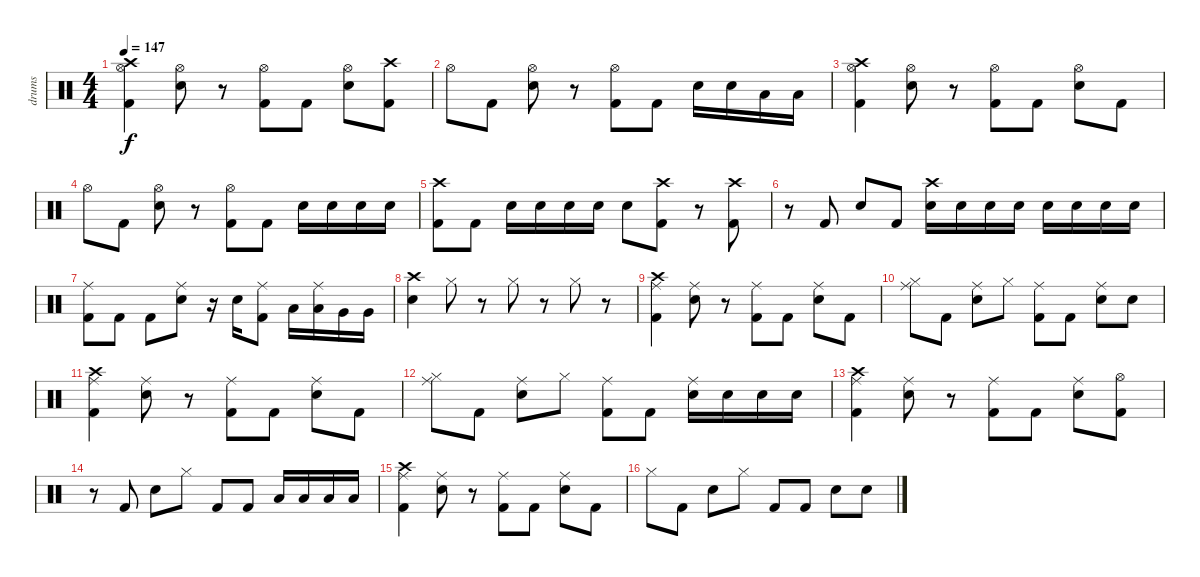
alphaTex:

\track ("drums" "drums") {instrument percussion}
\staff {score}
\articulation defaults
\ts (4 4)
\tempo 147
\clef neutral
\ks c
("Crash high (hit)" "Hi-Hat (open)" "Kick (hit) 2").4{dy f} ("Hi-Hat (open)" "Electric Snare (hit)").8 r.8 ("Hi-Hat (open)" "Kick (hit) 2").8 "Kick (hit) 2".8 ("Hi-Hat (open)" "Electric Snare (hit)").8 ("Crash high (hit)" "Kick (hit) 2").8 |
"Hi-Hat (open)".8 "Kick (hit) 2".8 ("Hi-Hat (open)" "Electric Snare (hit)").8 r.8 ("Hi-Hat (open)" "Kick (hit) 2").8 "Kick (hit) 2".8 "Electric Snare (hit)".16 "Electric Snare (hit)".16 "Low Tom (hit)".16 "Low Tom (hit)".16 |
("Crash high (hit)" "Hi-Hat (open)" "Kick (hit) 2").4 ("Hi-Hat (open)" "Electric Snare (hit)").8 r.8 ("Hi-Hat (open)" "Kick (hit) 2").8 "Kick (hit) 2".8 ("Hi-Hat (open)" "Electric Snare (hit)").8 "Kick (hit) 2".8 |
"Hi-Hat (open)".8 "Kick (hit) 2".8 ("Hi-Hat (open)" "Electric Snare (hit)").8 r.8 ("Hi-Hat (open)" "Kick (hit) 2").8 "Kick (hit) 2".8 "Electric Snare (hit)".16 "Electric Snare (hit)".16 "Electric Snare (hit)".16 "Electric Snare (hit)".16 |
("Crash high (hit)" "Kick (hit) 2").8 "Kick (hit) 2".8 "Electric Snare (hit)".16 "Electric Snare (hit)".16 "Electric Snare (hit)".16 "Electric Snare (hit)".16 "Electric Snare (hit)".8 ("Crash high (hit)" "Kick (hit) 2").8 r.8 ("Crash high (hit)" "Kick (hit) 2").8 |
r.8 "Kick (hit) 2".8 "Electric Snare (hit)".8 "Kick (hit) 2".8 ("Crash high (hit)" "Electric Snare (hit)").16 "Electric Snare (hit)".16 "Electric Snare (hit)".16 "Electric Snare (hit)".16 "Electric Snare (hit)".16 "Electric Snare (hit)".16 "Electric Snare (hit)".16 "Electric Snare (hit)".16 |
("Ride (middle)" "Kick (hit) 2").8 "Kick (hit) 2".8 "Kick (hit) 2".8 ("Ride (middle)" "Electric Snare (hit)").8 r.16 "Electric Snare (hit)".16 ("Ride (middle)" "Kick (hit) 2").8 "Low Tom (hit)".16 ("Ride (middle)" "Low Tom (hit)").16 "Very Low Tom (hit)".16 "Very Low Tom (hit)".16 |
("Crash high (hit)" "Electric Snare (hit)").4 "Hi-Hat (closed)".8 r.8 "Hi-Hat (closed)".8 r.8 "Hi-Hat (closed)".8 r.8 |
("Ride (middle)" "Crash high (hit)" "Kick (hit) 2").4 ("Ride (middle)" "Electric Snare (hit)").8 r.8 ("Ride (middle)" "Kick (hit) 2").8 "Kick (hit) 2".8 ("Ride (middle)" "Electric Snare (hit)").8 "Kick (hit) 2".8 |
("Ride (middle)" "Hi-Hat (closed)").8 "Kick (hit) 2".8 ("Ride (middle)" "Electric Snare (hit)").8 "Hi-Hat (closed)".8 ("Ride (middle)" "Kick (hit) 2").8 "Kick (hit) 2".8 ("Ride (middle)" "Electric Snare (hit)").8 "Electric Snare (hit)".8 |
("Ride (middle)" "Crash high (hit)" "Kick (hit) 2").4 ("Ride (middle)" "Electric Snare (hit)").8 r.8 ("Ride (middle)" "Kick (hit) 2").8 "Kick (hit) 2".8 ("Ride (middle)" "Electric Snare (hit)").8 "Kick (hit) 2".8 |
("Ride (middle)" "Hi-Hat (closed)").8 "Kick (hit) 2".8 ("Ride (middle)" "Electric Snare (hit)").8 "Hi-Hat (closed)".8 ("Ride (middle)" "Kick (hit) 2").8 "Kick (hit) 2".8 ("Ride (middle)" "Electric Snare (hit)").16 "Electric Snare (hit)".16 "Electric Snare (hit)".16 "Electric Snare (hit)".16 |
("Ride (middle)" "Crash high (hit)" "Kick (hit) 2").4 ("Ride (middle)" "Electric Snare (hit)").8 r.8 ("Ride (middle)" "Kick (hit) 2").8 "Kick (hit) 2".8 ("Ride (middle)" "Electric Snare (hit)").8 ("Hi-Hat (open)" "Kick (hit) 2").8 |
r.8 "Kick (hit) 2".8 "Electric Snare (hit)".8 "Hi-Hat (closed)".8 "Kick (hit) 2".8 "Kick (hit) 2".8 "Low Tom (hit)".16 "Low Tom (hit)".16 "Low Tom (hit)".16 "Low Tom (hit)".16 |
("Ride (middle)" "Crash high (hit)" "Kick (hit) 2").4 ("Ride (middle)" "Electric Snare (hit)").8 r.8 ("Ride (middle)" "Kick (hit) 2").8 "Kick (hit) 2".8 ("Ride (middle)" "Electric Snare (hit)").8 "Kick (hit) 2".8 |
"Hi-Hat (closed)".8 "Kick (hit) 2".8 "Electric Snare (hit)".8 "Hi-Hat (closed)".8 "Kick (hit) 2".8 "Kick (hit) 2".8 "Electric Snare (hit)".8 "Electric Snare (hit)".8
